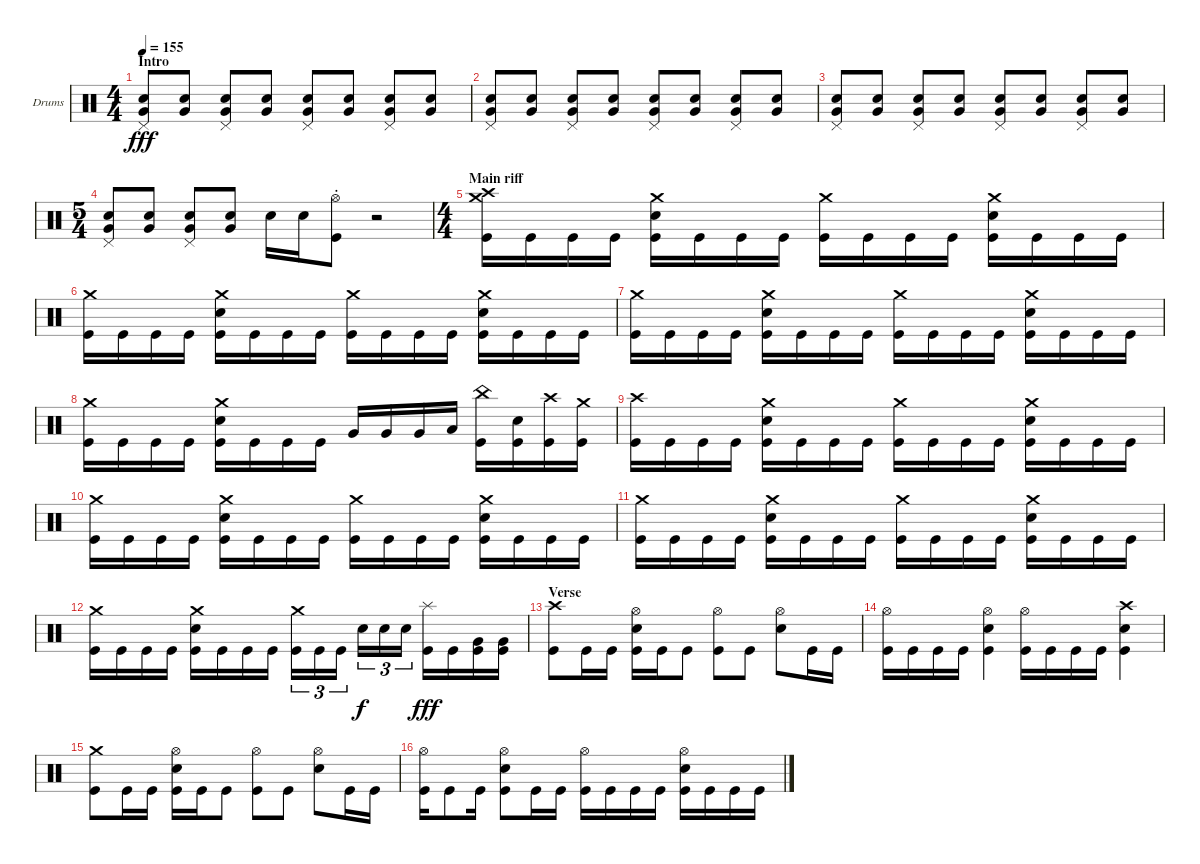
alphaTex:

\defaultSystemsLayout 4
\bracketExtendMode groupsimilarinstruments
\firstSystemTrackNameOrientation horizontal
\otherSystemsTrackNameOrientation horizontal
\track ("Alex Rudinger" "Drums") {instrument percussion}
\staff {score}
\articulation defaults
\ts (4 4)
\section ("" "Intro")
\tempo 155
\clef neutral
\ks c
("Very Low Tom (hit)" "Snare (hit) 2" "Pedal Hi-Hat (hit)").8{dy fff} ("Very Low Tom (hit)" "Snare (hit) 2").8 ("Very Low Tom (hit)" "Snare (hit) 2" "Pedal Hi-Hat (hit)").8 ("Very Low Tom (hit)" "Snare (hit) 2").8 ("Very Low Tom (hit)" "Snare (hit) 2" "Pedal Hi-Hat (hit)").8 ("Very Low Tom (hit)" "Snare (hit) 2").8 ("Very Low Tom (hit)" "Snare (hit) 2" "Pedal Hi-Hat (hit)").8 ("Very Low Tom (hit)" "Snare (hit) 2").8 |
("Very Low Tom (hit)" "Snare (hit) 2" "Pedal Hi-Hat (hit)").8 ("Very Low Tom (hit)" "Snare (hit) 2").8 ("Very Low Tom (hit)" "Snare (hit) 2" "Pedal Hi-Hat (hit)").8 ("Very Low Tom (hit)" "Snare (hit) 2").8 ("Very Low Tom (hit)" "Snare (hit) 2" "Pedal Hi-Hat (hit)").8 ("Very Low Tom (hit)" "Snare (hit) 2").8 ("Very Low Tom (hit)" "Snare (hit) 2" "Pedal Hi-Hat (hit)").8 ("Very Low Tom (hit)" "Snare (hit) 2").8 |
("Very Low Tom (hit)" "Snare (hit) 2" "Pedal Hi-Hat (hit)").8 ("Very Low Tom (hit)" "Snare (hit) 2").8 ("Very Low Tom (hit)" "Snare (hit) 2" "Pedal Hi-Hat (hit)").8 ("Very Low Tom (hit)" "Snare (hit) 2").8 ("Very Low Tom (hit)" "Snare (hit) 2" "Pedal Hi-Hat (hit)").8 ("Very Low Tom (hit)" "Snare (hit) 2").8 ("Very Low Tom (hit)" "Snare (hit) 2" "Pedal Hi-Hat (hit)").8 ("Very Low Tom (hit)" "Snare (hit) 2").8 |
\ts (5 4)
("Very Low Tom (hit)" "Snare (hit) 2" "Pedal Hi-Hat (hit)").8 ("Very Low Tom (hit)" "Snare (hit) 2").8 ("Very Low Tom (hit)" "Snare (hit) 2" "Pedal Hi-Hat (hit)").8 ("Very Low Tom (hit)" "Snare (hit) 2").8 "Snare (hit) 2".16 "Snare (hit) 2".16 ("Kick (hit)"{st} "Hi-Hat (open)").8 r.2 |
\ts (4 4)
\section ("" "Main riff")
("Kick (hit)" "Crash medium (hit)" "Crash high (hit)").16 "Kick (hit)".16 "Kick (hit)".16 "Kick (hit)".16 ("Kick (hit)" "Snare (hit) 2" "Crash medium (hit)").16 "Kick (hit)".16 "Kick (hit)".16 "Kick (hit)".16 ("Kick (hit)" "Crash medium (hit)").16 "Kick (hit)".16 "Kick (hit)".16 "Kick (hit)".16 ("Kick (hit)" "Snare (hit) 2" "Crash medium (hit)").16 "Kick (hit)".16 "Kick (hit)".16 "Kick (hit)".16 |
("Kick (hit)" "Crash medium (hit)").16 "Kick (hit)".16 "Kick (hit)".16 "Kick (hit)".16 ("Kick (hit)" "Snare (hit) 2" "Crash medium (hit)").16 "Kick (hit)".16 "Kick (hit)".16 "Kick (hit)".16 ("Kick (hit)" "Crash medium (hit)").16 "Kick (hit)".16 "Kick (hit)".16 "Kick (hit)".16 ("Kick (hit)" "Snare (hit) 2" "Crash medium (hit)").16 "Kick (hit)".16 "Kick (hit)".16 "Kick (hit)".16 |
("Kick (hit)" "Crash medium (hit)").16 "Kick (hit)".16 "Kick (hit)".16 "Kick (hit)".16 ("Kick (hit)" "Snare (hit) 2" "Crash medium (hit)").16 "Kick (hit)".16 "Kick (hit)".16 "Kick (hit)".16 ("Kick (hit)" "Crash medium (hit)").16 "Kick (hit)".16 "Kick (hit)".16 "Kick (hit)".16 ("Kick (hit)" "Snare (hit) 2" "Crash medium (hit)").16 "Kick (hit)".16 "Kick (hit)".16 "Kick (hit)".16 |
("Kick (hit)" "Crash medium (hit)").16 "Kick (hit)".16 "Kick (hit)".16 "Kick (hit)".16 ("Kick (hit)" "Snare (hit) 2" "Crash medium (hit)").16 "Kick (hit)".16 "Kick (hit)".16 "Kick (hit)".16 "Very Low Tom (hit)".16 "Very Low Tom (hit)".16 "Very Low Tom (hit)".16 "Low Tom (hit)".16 ("China (hit)" "Kick (hit)").16 ("Snare (hit) 2" "Kick (hit)").16 ("Crash high (hit)" "Kick (hit)").16 ("Crash medium (hit)" "Kick (hit)").16 |
("Kick (hit)" "Crash high (hit)").16 "Kick (hit)".16 "Kick (hit)".16 "Kick (hit)".16 ("Kick (hit)" "Snare (hit) 2" "Crash medium (hit)").16 "Kick (hit)".16 "Kick (hit)".16 "Kick (hit)".16 ("Kick (hit)" "Crash medium (hit)").16 "Kick (hit)".16 "Kick (hit)".16 "Kick (hit)".16 ("Kick (hit)" "Snare (hit) 2" "Crash medium (hit)").16 "Kick (hit)".16 "Kick (hit)".16 "Kick (hit)".16 |
("Kick (hit)" "Crash medium (hit)").16 "Kick (hit)".16 "Kick (hit)".16 "Kick (hit)".16 ("Kick (hit)" "Snare (hit) 2" "Crash medium (hit)").16 "Kick (hit)".16 "Kick (hit)".16 "Kick (hit)".16 ("Kick (hit)" "Crash medium (hit)").16 "Kick (hit)".16 "Kick (hit)".16 "Kick (hit)".16 ("Kick (hit)" "Snare (hit) 2" "Crash medium (hit)").16 "Kick (hit)".16 "Kick (hit)".16 "Kick (hit)".16 |
("Kick (hit)" "Crash medium (hit)").16 "Kick (hit)".16 "Kick (hit)".16 "Kick (hit)".16 ("Kick (hit)" "Snare (hit) 2" "Crash medium (hit)").16 "Kick (hit)".16 "Kick (hit)".16 "Kick (hit)".16 ("Kick (hit)" "Crash medium (hit)").16 "Kick (hit)".16 "Kick (hit)".16 "Kick (hit)".16 ("Kick (hit)" "Snare (hit) 2" "Crash medium (hit)").16 "Kick (hit)".16 "Kick (hit)".16 "Kick (hit)".16 |
("Kick (hit)" "Crash medium (hit)").16 "Kick (hit)".16 "Kick (hit)".16 "Kick (hit)".16 ("Kick (hit)" "Snare (hit) 2" "Crash medium (hit)").16 "Kick (hit)".16 "Kick (hit)".16 "Kick (hit)".16 ("Kick (hit)" "Crash medium (hit)").16{tu (3 2)} "Kick (hit)".16{tu (3 2)} "Kick (hit)".16{tu (3 2)} "Snare (hit) 2".16{tu (3 2) dy f} "Snare (hit) 2".16{tu (3 2)} "Snare (hit) 2".16{tu (3 2)} ("Splash (hit)" "Kick (hit)").16{dy fff} "Kick (hit)".16 ("Very Low Tom (hit)" "Kick (hit)").16 ("Very Low Tom (hit)" "Kick (hit)").16 |
\section ("" "Verse")
("Kick (hit)" "Crash high (hit)").8 "Kick (hit)".16 "Kick (hit)".16 ("Kick (hit)" "Snare (hit) 2" "Hi-Hat (open)").16 "Kick (hit)".16 "Kick (hit)".8 ("Kick (hit)" "Hi-Hat (open)").8 "Kick (hit)".8 ("Snare (hit) 2" "Hi-Hat (open)").8 "Kick (hit)".16 "Kick (hit)".16 |
("Kick (hit)" "Hi-Hat (open)").16 "Kick (hit)".16 "Kick (hit)".16 "Kick (hit)".16 ("Kick (hit)" "Snare (hit) 2" "Hi-Hat (open)").4 ("Kick (hit)" "Hi-Hat (open)").16 "Kick (hit)".16 "Kick (hit)".16 "Kick (hit)".16 ("Kick (hit)" "Snare (hit) 2" "Crash high (hit)").4 |
("Kick (hit)" "Crash medium (hit)").8 "Kick (hit)".16 "Kick (hit)".16 ("Kick (hit)" "Snare (hit) 2" "Hi-Hat (open)").16 "Kick (hit)".16 "Kick (hit)".8 ("Kick (hit)" "Hi-Hat (open)").8 "Kick (hit)".8 ("Snare (hit) 2" "Hi-Hat (open)").8 "Kick (hit)".16 "Kick (hit)".16 |
("Kick (hit)" "Hi-Hat (open)").16 "Kick (hit)".8 "Kick (hit)".16 ("Kick (hit)" "Snare (hit) 2" "Hi-Hat (open)").8 "Kick (hit)".16 "Kick (hit)".16 ("Kick (hit)" "Hi-Hat (open)").16 "Kick (hit)".16 "Kick (hit)".16 "Kick (hit)".16 ("Kick (hit)" "Snare (hit) 2" "Hi-Hat (open)").16 "Kick (hit)".16 "Kick (hit)".16 "Kick (hit)".16
